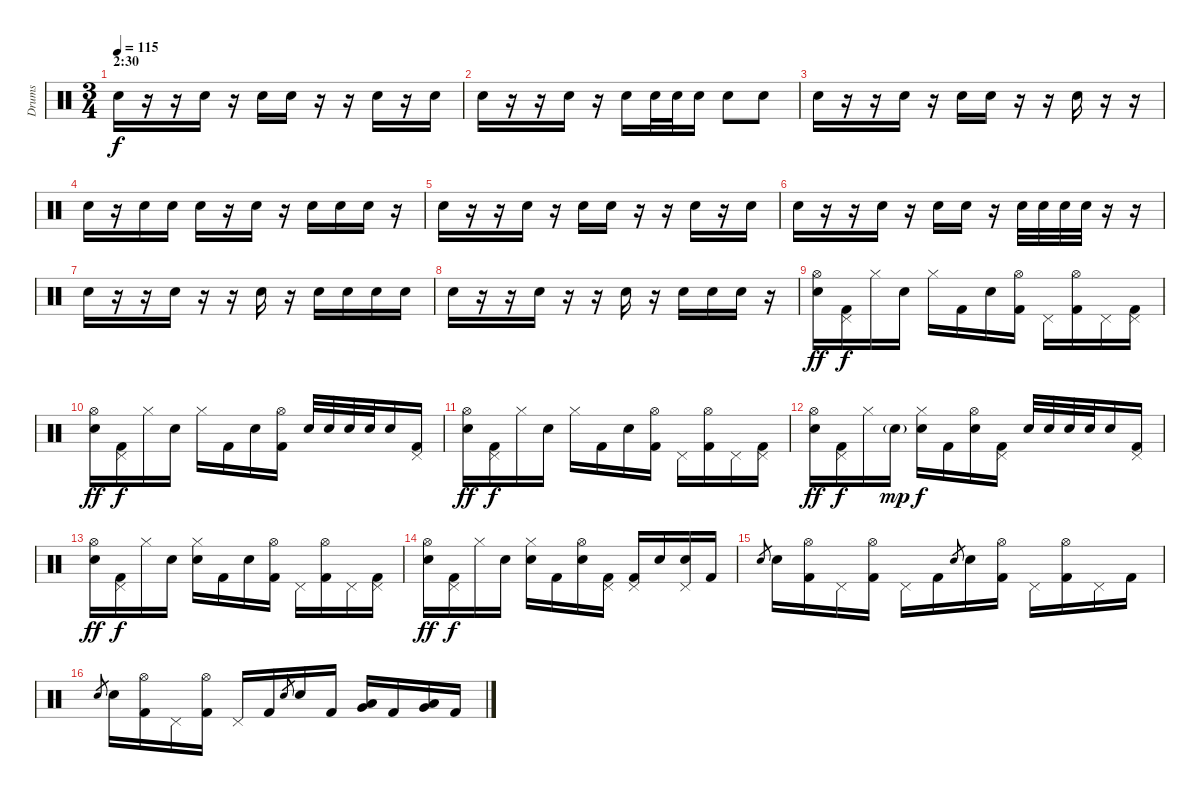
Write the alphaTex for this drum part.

\track ("Drums" "Drums") {instrument percussion}
\staff {score}
\articulation defaults
\ts (3 4)
\section ("" "2:30")
\tempo 115
\clef neutral
\ks c "Electric Snare (hit)".16{dy f}
r.16 r.16 "Electric Snare (hit)".16 r.16 "Electric Snare (hit)".16 "Electric Snare (hit)".16 r.16 r.16 "Electric Snare (hit)".16 r.16 "Electric Snare (hit)".16 |
"Electric Snare (hit)".16 r.16 r.16 "Electric Snare (hit)".16 r.16 "Electric Snare (hit)".16 "Electric Snare (hit)".32 "Electric Snare (hit)".32 "Electric Snare (hit)".16 "Electric Snare (hit)".8 "Electric Snare (hit)".8 |
"Electric Snare (hit)".16 r.16 r.16 "Electric Snare (hit)".16 r.16 "Electric Snare (hit)".16 "Electric Snare (hit)".16 r.16 r.16 "Electric Snare (hit)".16 r.16 r.16 |
"Electric Snare (hit)".16 r.16 "Electric Snare (hit)".16 "Electric Snare (hit)".16 "Electric Snare (hit)".16 r.16 "Electric Snare (hit)".16 r.16 "Electric Snare (hit)".16 "Electric Snare (hit)".16 "Electric Snare (hit)".16 r.16 |
"Electric Snare (hit)".16 r.16 r.16 "Electric Snare (hit)".16 r.16 "Electric Snare (hit)".16 "Electric Snare (hit)".16 r.16 r.16 "Electric Snare (hit)".16 r.16 "Electric Snare (hit)".16 |
"Electric Snare (hit)".16 r.16 r.16 "Electric Snare (hit)".16 r.16 "Electric Snare (hit)".16 "Electric Snare (hit)".16 r.16 "Electric Snare (hit)".32 "Electric Snare (hit)".32 "Electric Snare (hit)".32 "Electric Snare (hit)".32 r.16 r.16 |
"Electric Snare (hit)".16 r.16 r.16 "Electric Snare (hit)".16 r.16 r.16 "Electric Snare (hit)".16 r.16 "Electric Snare (hit)".16 "Electric Snare (hit)".16 "Electric Snare (hit)".16 "Electric Snare (hit)".16 |
"Electric Snare (hit)".16 r.16 r.16 "Electric Snare (hit)".16 r.16 r.16 "Electric Snare (hit)".16 r.16 "Electric Snare (hit)".16 "Electric Snare (hit)".16 "Electric Snare (hit)".16 r.16 |
("Hi-Hat (open)" "Electric Snare (hit)").16{dy ff} ("Pedal Hi-Hat (hit)" "Kick (hit) 2").16{dy f} "Hi-Hat (closed)".16 "Electric Snare (hit)".16 "Hi-Hat (closed)".16 "Kick (hit) 2".16 "Electric Snare (hit)".16 ("Hi-Hat (open)" "Kick (hit) 2").16 "Pedal Hi-Hat (hit)".16 ("Hi-Hat (open)" "Kick (hit) 2").16 "Pedal Hi-Hat (hit)".16 ("Pedal Hi-Hat (hit)" "Kick (hit) 2").16 |
("Hi-Hat (open)" "Electric Snare (hit)").16{dy ff} ("Pedal Hi-Hat (hit)" "Kick (hit) 2").16{dy f} "Hi-Hat (closed)".16 "Electric Snare (hit)".16 "Hi-Hat (closed)".16 "Kick (hit) 2".16 "Electric Snare (hit)".16 ("Hi-Hat (open)" "Kick (hit) 2").16 "Electric Snare (hit)".32 "Electric Snare (hit)".32 "Electric Snare (hit)".32 "Electric Snare (hit)".32 "Electric Snare (hit)".16 ("Pedal Hi-Hat (hit)" "Kick (hit) 2").16 |
("Hi-Hat (open)" "Electric Snare (hit)").16{dy ff} ("Pedal Hi-Hat (hit)" "Kick (hit) 2").16{dy f} "Hi-Hat (closed)".16 "Electric Snare (hit)".16 "Hi-Hat (closed)".16 "Kick (hit) 2".16 "Electric Snare (hit)".16 ("Hi-Hat (open)" "Kick (hit) 2").16 "Pedal Hi-Hat (hit)".16 ("Hi-Hat (open)" "Kick (hit) 2").16 "Pedal Hi-Hat (hit)".16 ("Pedal Hi-Hat (hit)" "Kick (hit) 2").16 |
("Hi-Hat (open)" "Electric Snare (hit)").16{dy ff} ("Pedal Hi-Hat (hit)" "Kick (hit) 2").16{dy f} "Hi-Hat (closed)".16 "Electric Snare (hit)"{g}.16{dy mp} ("Hi-Hat (closed)" "Electric Snare (hit)").16{dy f} "Kick (hit) 2".16 ("Hi-Hat (open)" "Electric Snare (hit)").16 ("Pedal Hi-Hat (hit)" "Kick (hit) 2").16 "Electric Snare (hit)".32 "Electric Snare (hit)".32 "Electric Snare (hit)".32 "Electric Snare (hit)".32 "Electric Snare (hit)".16 ("Pedal Hi-Hat (hit)" "Kick (hit) 2").16 |
("Hi-Hat (open)" "Electric Snare (hit)").16{dy ff} ("Pedal Hi-Hat (hit)" "Kick (hit) 2").16{dy f} "Hi-Hat (closed)".16 "Electric Snare (hit)".16 ("Hi-Hat (closed)" "Electric Snare (hit)").16 "Kick (hit) 2".16 "Electric Snare (hit)".16 ("Hi-Hat (open)" "Kick (hit) 2").16 "Pedal Hi-Hat (hit)".16 ("Hi-Hat (open)" "Kick (hit) 2").16 "Pedal Hi-Hat (hit)".16 ("Pedal Hi-Hat (hit)" "Kick (hit) 2").16 |
("Hi-Hat (open)" "Electric Snare (hit)").16{dy ff} ("Pedal Hi-Hat (hit)" "Kick (hit) 2").16{dy f} "Hi-Hat (closed)".16 "Electric Snare (hit)".16 ("Hi-Hat (closed)" "Electric Snare (hit)").16 "Kick (hit) 2".16 ("Hi-Hat (open)" "Electric Snare (hit)").16 ("Pedal Hi-Hat (hit)" "Kick (hit) 2").16 ("Pedal Hi-Hat (hit)" "Kick (hit) 2").16 "Electric Snare (hit)".16 ("Pedal Hi-Hat (hit)" "Electric Snare (hit)").16 "Kick (hit) 2".16 |
"Electric Snare (hit)".8{gr} "Electric Snare (hit)".16 ("Hi-Hat (open)" "Kick (hit) 2").16 "Pedal Hi-Hat (hit)".16 ("Hi-Hat (open)" "Kick (hit) 2").16 "Pedal Hi-Hat (hit)".16 "Kick (hit) 2".16 "Electric Snare (hit)".8{gr} "Electric Snare (hit)".16 ("Hi-Hat (open)" "Kick (hit) 2").16 "Pedal Hi-Hat (hit)".16 ("Hi-Hat (open)" "Kick (hit) 2").16 "Pedal Hi-Hat (hit)".16 "Kick (hit) 2".16 |
"Electric Snare (hit)".8{gr} "Electric Snare (hit)".16 ("Hi-Hat (open)" "Kick (hit) 2").16 "Pedal Hi-Hat (hit)".16 ("Hi-Hat (open)" "Kick (hit) 2").16 "Pedal Hi-Hat (hit)".16 "Kick (hit) 2".16 "Electric Snare (hit)".8{gr} "Electric Snare (hit)".16 "Kick (hit) 2".16 ("Very Low Tom (hit)" "Low Tom (hit)").16 "Kick (hit) 2".16 ("Low Floor Tom (hit)" "Very Low Tom (hit)").16 "Kick (hit) 2".16
